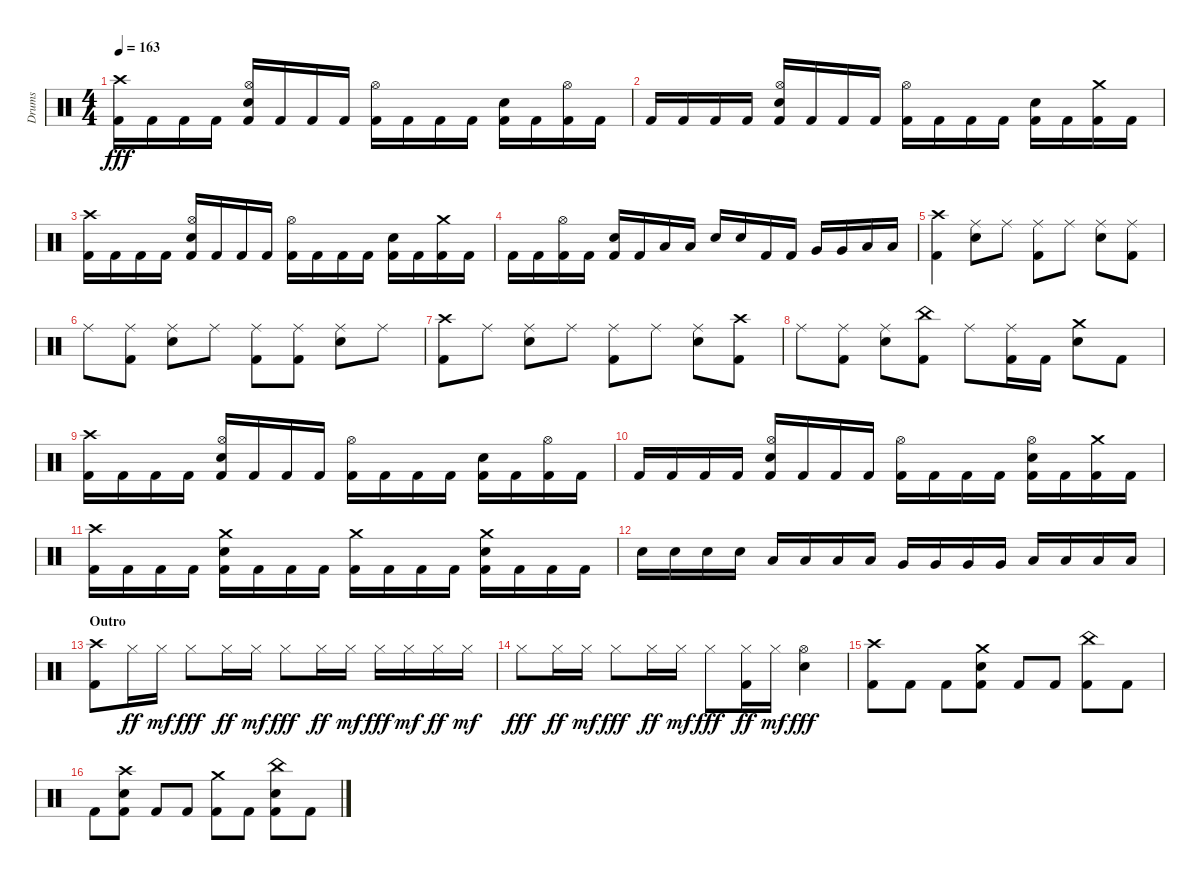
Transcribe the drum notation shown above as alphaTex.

\track ("Drums" "Drums") {instrument percussion}
\staff {score}
\articulation defaults
\ts (4 4)
\tempo 163
\clef neutral
\ks aminor
("Crash high (hit)" "Kick (hit) 2").16{dy fff} "Kick (hit) 2".16 "Kick (hit) 2".16 "Kick (hit) 2".16 ("Kick (hit) 2" "Hi-Hat (open)" "Snare (hit) 2").16 "Kick (hit) 2".16 "Kick (hit) 2".16 "Kick (hit) 2".16 ("Hi-Hat (open)" "Kick (hit) 2").16 "Kick (hit) 2".16 "Kick (hit) 2".16 "Kick (hit) 2".16 ("Snare (hit) 2" "Kick (hit) 2").16 "Kick (hit) 2".16 ("Kick (hit) 2" "Hi-Hat (open)").16 "Kick (hit) 2".16 |
"Kick (hit) 2".16 "Kick (hit) 2".16 "Kick (hit) 2".16 "Kick (hit) 2".16 ("Hi-Hat (open)" "Kick (hit) 2" "Snare (hit) 2").16 "Kick (hit) 2".16 "Kick (hit) 2".16 "Kick (hit) 2".16 ("Kick (hit) 2" "Hi-Hat (open)").16 "Kick (hit) 2".16 "Kick (hit) 2".16 "Kick (hit) 2".16 ("Snare (hit) 2" "Kick (hit) 2").16 "Kick (hit) 2".16 ("Kick (hit) 2" "Crash medium (hit)").16 "Kick (hit) 2".16 |
("Crash high (hit)" "Kick (hit) 2").16 "Kick (hit) 2".16 "Kick (hit) 2".16 "Kick (hit) 2".16 ("Snare (hit) 2" "Hi-Hat (open)" "Kick (hit) 2").16 "Kick (hit) 2".16 "Kick (hit) 2".16 "Kick (hit) 2".16 ("Kick (hit) 2" "Hi-Hat (open)").16 "Kick (hit) 2".16 "Kick (hit) 2".16 "Kick (hit) 2".16 ("Kick (hit) 2" "Snare (hit) 2").16 "Kick (hit) 2".16 ("Crash medium (hit)" "Kick (hit) 2").16 "Kick (hit) 2".16 |
"Kick (hit) 2".16 "Kick (hit) 2".16 ("Kick (hit) 2" "Hi-Hat (open)").16 "Kick (hit) 2".16 ("Kick (hit) 2" "Snare (hit) 2").16 "Kick (hit) 2".16 "Low Floor Tom (hit)".16 "Low Floor Tom (hit)".16 "Snare (hit) 2".16 "Snare (hit) 2".16 "Kick (hit) 2".16 "Kick (hit) 2".16 "Very Low Tom (hit)".16 "Very Low Tom (hit)".16 "Low Floor Tom (hit)".16 "Low Floor Tom (hit)".16 |
("Kick (hit) 2" "Crash high (hit)").4 ("Ride (middle)" "Snare (hit) 2").8 "Ride (middle)".8 ("Kick (hit) 2" "Ride (middle)").8 "Ride (middle)".8 ("Ride (middle)" "Snare (hit) 2").8 ("Kick (hit) 2" "Ride (middle)").8 |
"Ride (middle)".8 ("Ride (middle)" "Kick (hit) 2").8 ("Snare (hit) 2" "Ride (middle)").8 "Ride (middle)".8 ("Ride (middle)" "Kick (hit) 2").8 ("Ride (middle)" "Kick (hit) 2").8 ("Ride (middle)" "Snare (hit) 2").8 "Ride (middle)".8 |
("Crash high (hit)" "Kick (hit) 2").8 "Ride (middle)".8 ("Snare (hit) 2" "Ride (middle)").8 "Ride (middle)".8 ("Ride (middle)" "Kick (hit) 2").8 "Ride (middle)".8 ("Ride (middle)" "Snare (hit) 2").8 ("Crash high (hit)" "Kick (hit) 2").8 |
"Ride (middle)".8 ("Kick (hit) 2" "Ride (middle)").8 ("Ride (middle)" "Snare (hit) 2").8 ("China (hit)" "Kick (hit) 2").8 "Ride (middle)".8 ("Kick (hit) 2" "Ride (middle)").16 "Kick (hit) 2".16 ("Snare (hit) 2" "Crash medium (hit)").8 "Kick (hit) 2".8 |
("Crash high (hit)" "Kick (hit) 2").16 "Kick (hit) 2".16 "Kick (hit) 2".16 "Kick (hit) 2".16 ("Hi-Hat (open)" "Snare (hit) 2" "Kick (hit) 2").16 "Kick (hit) 2".16 "Kick (hit) 2".16 "Kick (hit) 2".16 ("Hi-Hat (open)" "Kick (hit) 2").16 "Kick (hit) 2".16 "Kick (hit) 2".16 "Kick (hit) 2".16 ("Kick (hit) 2" "Snare (hit) 2").16 "Kick (hit) 2".16 ("Kick (hit) 2" "Hi-Hat (open)").16 "Kick (hit) 2".16 |
"Kick (hit) 2".16 "Kick (hit) 2".16 "Kick (hit) 2".16 "Kick (hit) 2".16 ("Hi-Hat (open)" "Kick (hit) 2" "Snare (hit) 2").16 "Kick (hit) 2".16 "Kick (hit) 2".16 "Kick (hit) 2".16 ("Kick (hit) 2" "Hi-Hat (open)").16 "Kick (hit) 2".16 "Kick (hit) 2".16 "Kick (hit) 2".16 ("Kick (hit) 2" "Hi-Hat (open)" "Snare (hit) 2").16 "Kick (hit) 2".16 ("Kick (hit) 2" "Crash medium (hit)").16 "Kick (hit) 2".16 |
("Kick (hit) 2" "Crash high (hit)").16 "Kick (hit) 2".16 "Kick (hit) 2".16 "Kick (hit) 2".16 ("Snare (hit) 2" "Kick (hit) 2" "Crash medium (hit)").16 "Kick (hit) 2".16 "Kick (hit) 2".16 "Kick (hit) 2".16 ("Kick (hit) 2" "Crash medium (hit)").16 "Kick (hit) 2".16 "Kick (hit) 2".16 "Kick (hit) 2".16 ("Kick (hit) 2" "Snare (hit) 2" "Crash medium (hit)").16 "Kick (hit) 2".16 "Kick (hit) 2".16 "Kick (hit) 2".16 |
"Snare (hit) 2".16 "Snare (hit) 2".16 "Snare (hit) 2".16 "Snare (hit) 2".16 "Low Tom (hit)".16 "Low Tom (hit)".16 "Low Tom (hit)".16 "Low Tom (hit)".16 "Very Low Tom (hit)".16 "Very Low Tom (hit)".16 "Very Low Tom (hit)".16 "Very Low Tom (hit)".16 "Low Floor Tom (hit)".16 "Low Floor Tom (hit)".16 "Low Floor Tom (hit)".16 "Low Floor Tom (hit)".16 |
\section ("" "Outro")
("Kick (hit) 2" "Crash high (hit)").8 "Hi-Hat (closed)".16{dy ff} "Hi-Hat (closed)".16{dy mf} "Hi-Hat (closed)".8{dy fff} "Hi-Hat (closed)".16{dy ff} "Hi-Hat (closed)".16{dy mf} "Hi-Hat (closed)".8{dy fff} "Hi-Hat (closed)".16{dy ff} "Hi-Hat (closed)".16{dy mf} "Hi-Hat (closed)".16{dy fff} "Hi-Hat (closed)".16{dy mf} "Hi-Hat (closed)".16{dy ff} "Hi-Hat (closed)".16{dy mf} |
"Hi-Hat (closed)".8{dy fff} "Hi-Hat (closed)".16{dy ff} "Hi-Hat (closed)".16{dy mf} "Hi-Hat (closed)".8{dy fff} "Hi-Hat (closed)".16{dy ff} "Hi-Hat (closed)".16{dy mf} "Hi-Hat (closed)".8{dy fff} ("Kick (hit) 2" "Hi-Hat (closed)").16{dy ff} "Hi-Hat (closed)".16{dy mf} ("Snare (hit) 2" "Hi-Hat (open)").4{dy fff} |
("Kick (hit) 2" "Crash high (hit)").8 "Kick (hit) 2".8 "Kick (hit) 2".8 ("Kick (hit) 2" "Snare (hit) 2" "Crash medium (hit)").8 "Kick (hit) 2".8 "Kick (hit) 2".8 ("Kick (hit) 2" "China (hit)").8 "Kick (hit) 2".8 |
"Kick (hit) 2".8 ("Snare (hit) 2" "Crash high (hit)" "Kick (hit) 2").8 "Kick (hit) 2".8 "Kick (hit) 2".8 ("Kick (hit) 2" "Crash medium (hit)").8 "Kick (hit) 2".8 ("Snare (hit) 2" "China (hit)" "Kick (hit) 2").8 "Kick (hit) 2".8
